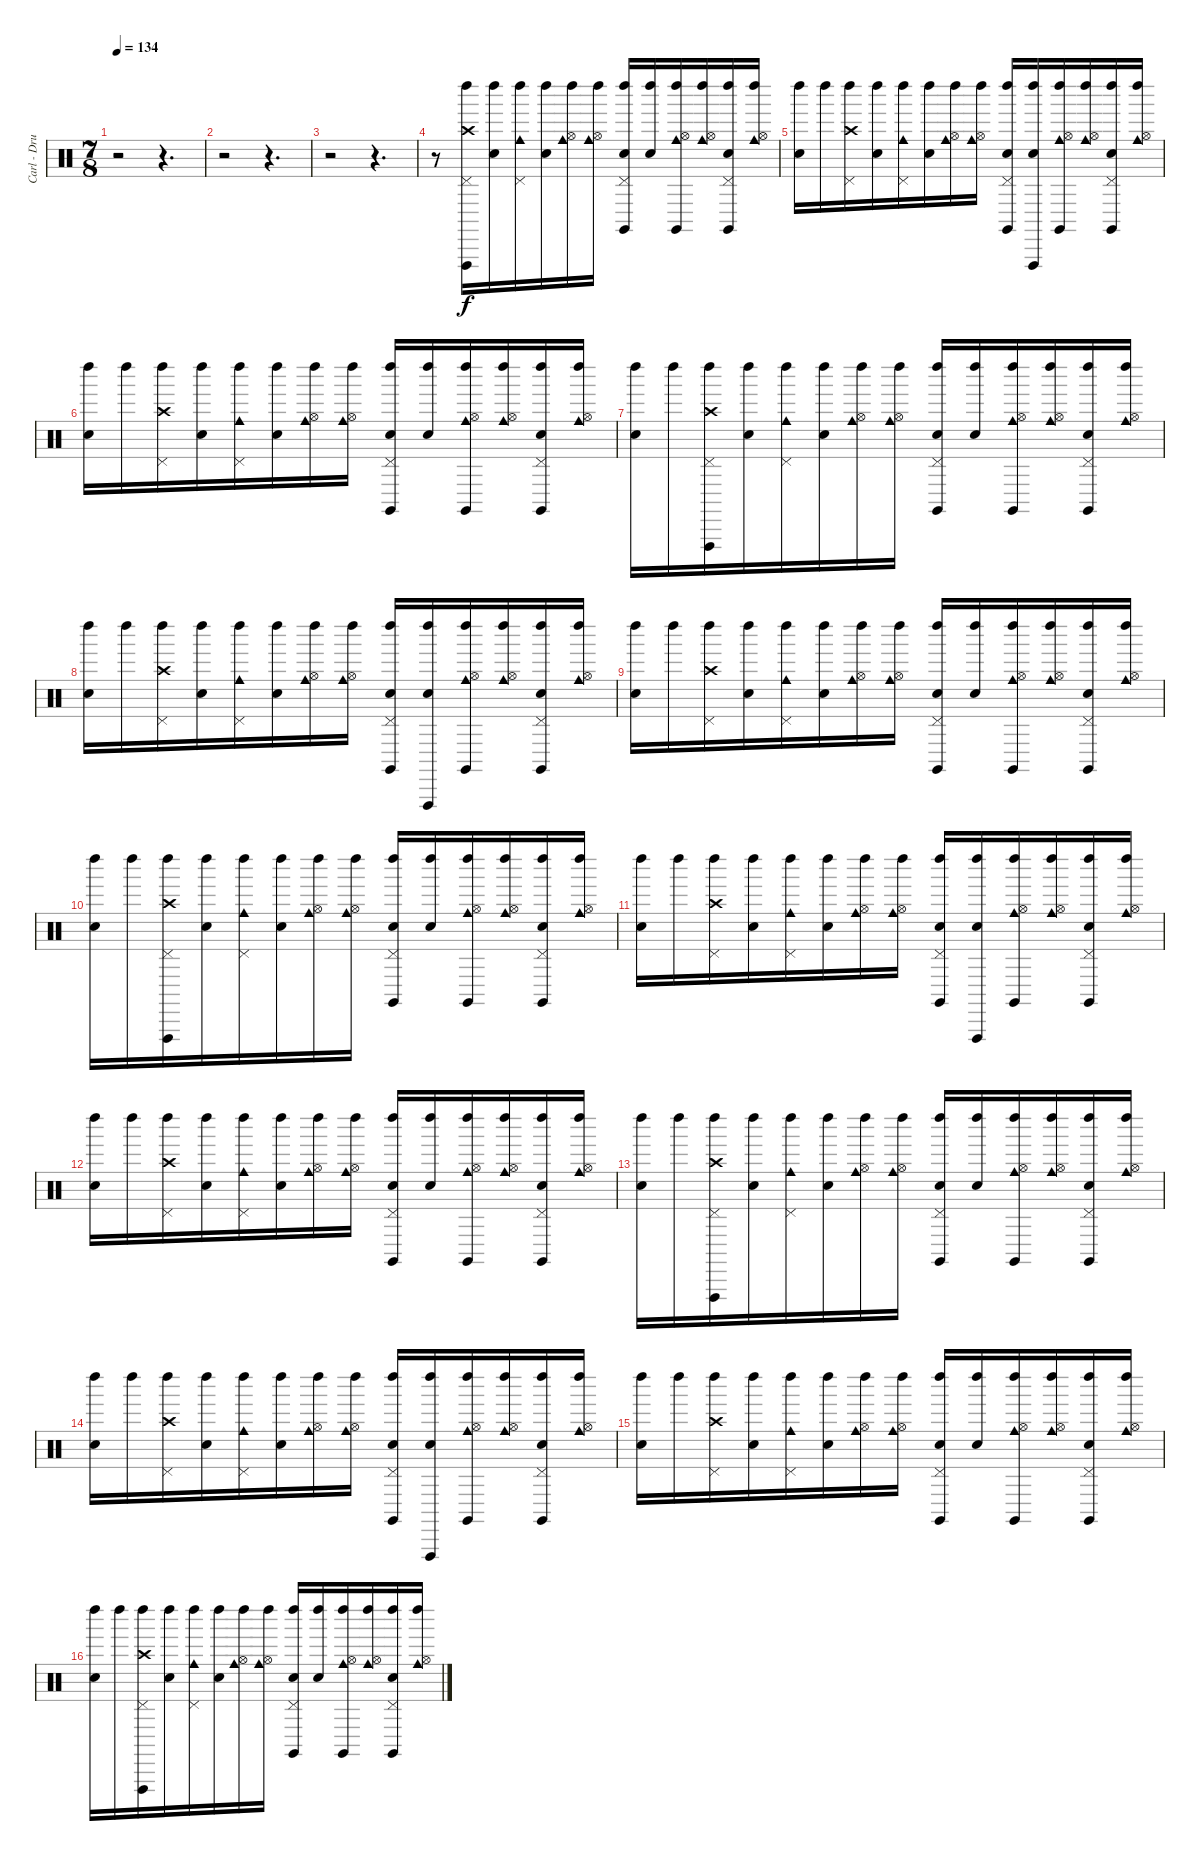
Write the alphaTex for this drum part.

\track ("Carl - Drums" "Carl - Dru") {instrument percussion}
\staff {score}
\articulation defaults
\ts (7 8)
\tempo 134
\clef neutral
\ks c
r.2{dy f} r.4{d} |
r.2 r.4{d} |
r.2 r.4{d} |
r.8 ("Left Maraca (hit)" "Vibraslap (hit)" "Crash high (hit)" "Pedal Hi-Hat (hit)").16 ("Left Maraca (hit)" "Electric Snare (hit)").16 ("Left Maraca (hit)" "Pedal Hi-Hat (hit)" "Cowbell medium (hit)").16 ("Left Maraca (hit)" "Electric Snare (hit)").16 ("Left Maraca (hit)" "Hi-Hat (open)" "Cowbell medium (hit)").16 ("Left Maraca (hit)" "Hi-Hat (open)" "Cowbell medium (hit)").16 ("Left Maraca (hit)" "Claves (hit)" "Electric Snare (hit)" "Pedal Hi-Hat (hit)").16 ("Left Maraca (hit)" "Electric Snare (hit)").16 ("Left Maraca (hit)" "Claves (hit)" "Hi-Hat (open)" "Cowbell medium (hit)").16 ("Left Maraca (hit)" "Hi-Hat (open)" "Cowbell medium (hit)").16 ("Left Maraca (hit)" "Claves (hit)" "Electric Snare (hit)" "Pedal Hi-Hat (hit)").16 ("Left Maraca (hit)" "Hi-Hat (open)" "Cowbell medium (hit)").16 |
("Left Maraca (hit)" "Electric Snare (hit)").16 "Left Maraca (hit)".16 ("Left Maraca (hit)" "Crash high (hit)" "Pedal Hi-Hat (hit)").16 ("Left Maraca (hit)" "Electric Snare (hit)").16 ("Left Maraca (hit)" "Pedal Hi-Hat (hit)" "Cowbell medium (hit)").16 ("Left Maraca (hit)" "Electric Snare (hit)").16 ("Left Maraca (hit)" "Hi-Hat (open)" "Cowbell medium (hit)").16 ("Left Maraca (hit)" "Hi-Hat (open)" "Cowbell medium (hit)").16 ("Left Maraca (hit)" "Claves (hit)" "Electric Snare (hit)" "Pedal Hi-Hat (hit)").16 ("Left Maraca (hit)" "Vibraslap (hit)" "Electric Snare (hit)").16 ("Left Maraca (hit)" "Claves (hit)" "Hi-Hat (open)" "Cowbell medium (hit)").16 ("Left Maraca (hit)" "Hi-Hat (open)" "Cowbell medium (hit)").16 ("Left Maraca (hit)" "Claves (hit)" "Electric Snare (hit)" "Pedal Hi-Hat (hit)").16 ("Left Maraca (hit)" "Hi-Hat (open)" "Cowbell medium (hit)").16 |
("Left Maraca (hit)" "Electric Snare (hit)").16 "Left Maraca (hit)".16 ("Left Maraca (hit)" "Crash high (hit)" "Pedal Hi-Hat (hit)").16 ("Left Maraca (hit)" "Electric Snare (hit)").16 ("Left Maraca (hit)" "Pedal Hi-Hat (hit)" "Cowbell medium (hit)").16 ("Left Maraca (hit)" "Electric Snare (hit)").16 ("Left Maraca (hit)" "Hi-Hat (open)" "Cowbell medium (hit)").16 ("Left Maraca (hit)" "Hi-Hat (open)" "Cowbell medium (hit)").16 ("Left Maraca (hit)" "Claves (hit)" "Electric Snare (hit)" "Pedal Hi-Hat (hit)").16 ("Left Maraca (hit)" "Electric Snare (hit)").16 ("Left Maraca (hit)" "Claves (hit)" "Hi-Hat (open)" "Cowbell medium (hit)").16 ("Left Maraca (hit)" "Hi-Hat (open)" "Cowbell medium (hit)").16 ("Left Maraca (hit)" "Claves (hit)" "Electric Snare (hit)" "Pedal Hi-Hat (hit)").16 ("Left Maraca (hit)" "Hi-Hat (open)" "Cowbell medium (hit)").16 |
("Left Maraca (hit)" "Electric Snare (hit)").16 "Left Maraca (hit)".16 ("Left Maraca (hit)" "Vibraslap (hit)" "Crash high (hit)" "Pedal Hi-Hat (hit)").16 ("Left Maraca (hit)" "Electric Snare (hit)").16 ("Left Maraca (hit)" "Pedal Hi-Hat (hit)" "Cowbell medium (hit)").16 ("Left Maraca (hit)" "Electric Snare (hit)").16 ("Left Maraca (hit)" "Hi-Hat (open)" "Cowbell medium (hit)").16 ("Left Maraca (hit)" "Hi-Hat (open)" "Cowbell medium (hit)").16 ("Left Maraca (hit)" "Claves (hit)" "Electric Snare (hit)" "Pedal Hi-Hat (hit)").16 ("Left Maraca (hit)" "Electric Snare (hit)").16 ("Left Maraca (hit)" "Claves (hit)" "Hi-Hat (open)" "Cowbell medium (hit)").16 ("Left Maraca (hit)" "Hi-Hat (open)" "Cowbell medium (hit)").16 ("Left Maraca (hit)" "Claves (hit)" "Electric Snare (hit)" "Pedal Hi-Hat (hit)").16 ("Left Maraca (hit)" "Hi-Hat (open)" "Cowbell medium (hit)").16 |
("Left Maraca (hit)" "Electric Snare (hit)").16 "Left Maraca (hit)".16 ("Left Maraca (hit)" "Crash high (hit)" "Pedal Hi-Hat (hit)").16 ("Left Maraca (hit)" "Electric Snare (hit)").16 ("Left Maraca (hit)" "Pedal Hi-Hat (hit)" "Cowbell medium (hit)").16 ("Left Maraca (hit)" "Electric Snare (hit)").16 ("Left Maraca (hit)" "Hi-Hat (open)" "Cowbell medium (hit)").16 ("Left Maraca (hit)" "Hi-Hat (open)" "Cowbell medium (hit)").16 ("Left Maraca (hit)" "Claves (hit)" "Electric Snare (hit)" "Pedal Hi-Hat (hit)").16 ("Left Maraca (hit)" "Vibraslap (hit)" "Electric Snare (hit)").16 ("Left Maraca (hit)" "Claves (hit)" "Hi-Hat (open)" "Cowbell medium (hit)").16 ("Left Maraca (hit)" "Hi-Hat (open)" "Cowbell medium (hit)").16 ("Left Maraca (hit)" "Claves (hit)" "Electric Snare (hit)" "Pedal Hi-Hat (hit)").16 ("Left Maraca (hit)" "Hi-Hat (open)" "Cowbell medium (hit)").16 |
("Left Maraca (hit)" "Electric Snare (hit)").16 "Left Maraca (hit)".16 ("Left Maraca (hit)" "Crash high (hit)" "Pedal Hi-Hat (hit)").16 ("Left Maraca (hit)" "Electric Snare (hit)").16 ("Left Maraca (hit)" "Pedal Hi-Hat (hit)" "Cowbell medium (hit)").16 ("Left Maraca (hit)" "Electric Snare (hit)").16 ("Left Maraca (hit)" "Hi-Hat (open)" "Cowbell medium (hit)").16 ("Left Maraca (hit)" "Hi-Hat (open)" "Cowbell medium (hit)").16 ("Left Maraca (hit)" "Claves (hit)" "Electric Snare (hit)" "Pedal Hi-Hat (hit)").16 ("Left Maraca (hit)" "Electric Snare (hit)").16 ("Left Maraca (hit)" "Claves (hit)" "Hi-Hat (open)" "Cowbell medium (hit)").16 ("Left Maraca (hit)" "Hi-Hat (open)" "Cowbell medium (hit)").16 ("Left Maraca (hit)" "Claves (hit)" "Electric Snare (hit)" "Pedal Hi-Hat (hit)").16 ("Left Maraca (hit)" "Hi-Hat (open)" "Cowbell medium (hit)").16 |
("Left Maraca (hit)" "Electric Snare (hit)").16 "Left Maraca (hit)".16 ("Left Maraca (hit)" "Vibraslap (hit)" "Crash high (hit)" "Pedal Hi-Hat (hit)").16 ("Left Maraca (hit)" "Electric Snare (hit)").16 ("Left Maraca (hit)" "Pedal Hi-Hat (hit)" "Cowbell medium (hit)").16 ("Left Maraca (hit)" "Electric Snare (hit)").16 ("Left Maraca (hit)" "Hi-Hat (open)" "Cowbell medium (hit)").16 ("Left Maraca (hit)" "Hi-Hat (open)" "Cowbell medium (hit)").16 ("Left Maraca (hit)" "Claves (hit)" "Electric Snare (hit)" "Pedal Hi-Hat (hit)").16 ("Left Maraca (hit)" "Electric Snare (hit)").16 ("Left Maraca (hit)" "Claves (hit)" "Hi-Hat (open)" "Cowbell medium (hit)").16 ("Left Maraca (hit)" "Hi-Hat (open)" "Cowbell medium (hit)").16 ("Left Maraca (hit)" "Claves (hit)" "Electric Snare (hit)" "Pedal Hi-Hat (hit)").16 ("Left Maraca (hit)" "Hi-Hat (open)" "Cowbell medium (hit)").16 |
("Left Maraca (hit)" "Electric Snare (hit)").16 "Left Maraca (hit)".16 ("Left Maraca (hit)" "Crash high (hit)" "Pedal Hi-Hat (hit)").16 ("Left Maraca (hit)" "Electric Snare (hit)").16 ("Left Maraca (hit)" "Pedal Hi-Hat (hit)" "Cowbell medium (hit)").16 ("Left Maraca (hit)" "Electric Snare (hit)").16 ("Left Maraca (hit)" "Hi-Hat (open)" "Cowbell medium (hit)").16 ("Left Maraca (hit)" "Hi-Hat (open)" "Cowbell medium (hit)").16 ("Left Maraca (hit)" "Claves (hit)" "Electric Snare (hit)" "Pedal Hi-Hat (hit)").16 ("Left Maraca (hit)" "Vibraslap (hit)" "Electric Snare (hit)").16 ("Left Maraca (hit)" "Claves (hit)" "Hi-Hat (open)" "Cowbell medium (hit)").16 ("Left Maraca (hit)" "Hi-Hat (open)" "Cowbell medium (hit)").16 ("Left Maraca (hit)" "Claves (hit)" "Electric Snare (hit)" "Pedal Hi-Hat (hit)").16 ("Left Maraca (hit)" "Hi-Hat (open)" "Cowbell medium (hit)").16 |
("Left Maraca (hit)" "Electric Snare (hit)").16 "Left Maraca (hit)".16 ("Left Maraca (hit)" "Crash high (hit)" "Pedal Hi-Hat (hit)").16 ("Left Maraca (hit)" "Electric Snare (hit)").16 ("Left Maraca (hit)" "Pedal Hi-Hat (hit)" "Cowbell medium (hit)").16 ("Left Maraca (hit)" "Electric Snare (hit)").16 ("Left Maraca (hit)" "Hi-Hat (open)" "Cowbell medium (hit)").16 ("Left Maraca (hit)" "Hi-Hat (open)" "Cowbell medium (hit)").16 ("Left Maraca (hit)" "Claves (hit)" "Electric Snare (hit)" "Pedal Hi-Hat (hit)").16 ("Left Maraca (hit)" "Electric Snare (hit)").16 ("Left Maraca (hit)" "Claves (hit)" "Hi-Hat (open)" "Cowbell medium (hit)").16 ("Left Maraca (hit)" "Hi-Hat (open)" "Cowbell medium (hit)").16 ("Left Maraca (hit)" "Claves (hit)" "Electric Snare (hit)" "Pedal Hi-Hat (hit)").16 ("Left Maraca (hit)" "Hi-Hat (open)" "Cowbell medium (hit)").16 |
("Left Maraca (hit)" "Electric Snare (hit)").16 "Left Maraca (hit)".16 ("Left Maraca (hit)" "Vibraslap (hit)" "Crash high (hit)" "Pedal Hi-Hat (hit)").16 ("Left Maraca (hit)" "Electric Snare (hit)").16 ("Left Maraca (hit)" "Pedal Hi-Hat (hit)" "Cowbell medium (hit)").16 ("Left Maraca (hit)" "Electric Snare (hit)").16 ("Left Maraca (hit)" "Hi-Hat (open)" "Cowbell medium (hit)").16 ("Left Maraca (hit)" "Hi-Hat (open)" "Cowbell medium (hit)").16 ("Left Maraca (hit)" "Claves (hit)" "Electric Snare (hit)" "Pedal Hi-Hat (hit)").16 ("Left Maraca (hit)" "Electric Snare (hit)").16 ("Left Maraca (hit)" "Claves (hit)" "Hi-Hat (open)" "Cowbell medium (hit)").16 ("Left Maraca (hit)" "Hi-Hat (open)" "Cowbell medium (hit)").16 ("Left Maraca (hit)" "Claves (hit)" "Electric Snare (hit)" "Pedal Hi-Hat (hit)").16 ("Left Maraca (hit)" "Hi-Hat (open)" "Cowbell medium (hit)").16 |
("Left Maraca (hit)" "Electric Snare (hit)").16 "Left Maraca (hit)".16 ("Left Maraca (hit)" "Crash high (hit)" "Pedal Hi-Hat (hit)").16 ("Left Maraca (hit)" "Electric Snare (hit)").16 ("Left Maraca (hit)" "Pedal Hi-Hat (hit)" "Cowbell medium (hit)").16 ("Left Maraca (hit)" "Electric Snare (hit)").16 ("Left Maraca (hit)" "Hi-Hat (open)" "Cowbell medium (hit)").16 ("Left Maraca (hit)" "Hi-Hat (open)" "Cowbell medium (hit)").16 ("Left Maraca (hit)" "Claves (hit)" "Electric Snare (hit)" "Pedal Hi-Hat (hit)").16 ("Left Maraca (hit)" "Vibraslap (hit)" "Electric Snare (hit)").16 ("Left Maraca (hit)" "Claves (hit)" "Hi-Hat (open)" "Cowbell medium (hit)").16 ("Left Maraca (hit)" "Hi-Hat (open)" "Cowbell medium (hit)").16 ("Left Maraca (hit)" "Claves (hit)" "Electric Snare (hit)" "Pedal Hi-Hat (hit)").16 ("Left Maraca (hit)" "Hi-Hat (open)" "Cowbell medium (hit)").16 |
("Left Maraca (hit)" "Electric Snare (hit)").16 "Left Maraca (hit)".16 ("Left Maraca (hit)" "Crash high (hit)" "Pedal Hi-Hat (hit)").16 ("Left Maraca (hit)" "Electric Snare (hit)").16 ("Left Maraca (hit)" "Pedal Hi-Hat (hit)" "Cowbell medium (hit)").16 ("Left Maraca (hit)" "Electric Snare (hit)").16 ("Left Maraca (hit)" "Hi-Hat (open)" "Cowbell medium (hit)").16 ("Left Maraca (hit)" "Hi-Hat (open)" "Cowbell medium (hit)").16 ("Left Maraca (hit)" "Claves (hit)" "Electric Snare (hit)" "Pedal Hi-Hat (hit)").16 ("Left Maraca (hit)" "Electric Snare (hit)").16 ("Left Maraca (hit)" "Claves (hit)" "Hi-Hat (open)" "Cowbell medium (hit)").16 ("Left Maraca (hit)" "Hi-Hat (open)" "Cowbell medium (hit)").16 ("Left Maraca (hit)" "Claves (hit)" "Electric Snare (hit)" "Pedal Hi-Hat (hit)").16 ("Left Maraca (hit)" "Hi-Hat (open)" "Cowbell medium (hit)").16 |
("Left Maraca (hit)" "Electric Snare (hit)").16 "Left Maraca (hit)".16 ("Left Maraca (hit)" "Vibraslap (hit)" "Crash high (hit)" "Pedal Hi-Hat (hit)").16 ("Left Maraca (hit)" "Electric Snare (hit)").16 ("Left Maraca (hit)" "Pedal Hi-Hat (hit)" "Cowbell medium (hit)").16 ("Left Maraca (hit)" "Electric Snare (hit)").16 ("Left Maraca (hit)" "Hi-Hat (open)" "Cowbell medium (hit)").16 ("Left Maraca (hit)" "Hi-Hat (open)" "Cowbell medium (hit)").16 ("Left Maraca (hit)" "Claves (hit)" "Electric Snare (hit)" "Pedal Hi-Hat (hit)").16 ("Left Maraca (hit)" "Electric Snare (hit)").16 ("Left Maraca (hit)" "Claves (hit)" "Hi-Hat (open)" "Cowbell medium (hit)").16 ("Left Maraca (hit)" "Hi-Hat (open)" "Cowbell medium (hit)").16 ("Left Maraca (hit)" "Claves (hit)" "Electric Snare (hit)" "Pedal Hi-Hat (hit)").16 ("Left Maraca (hit)" "Hi-Hat (open)" "Cowbell medium (hit)").16
